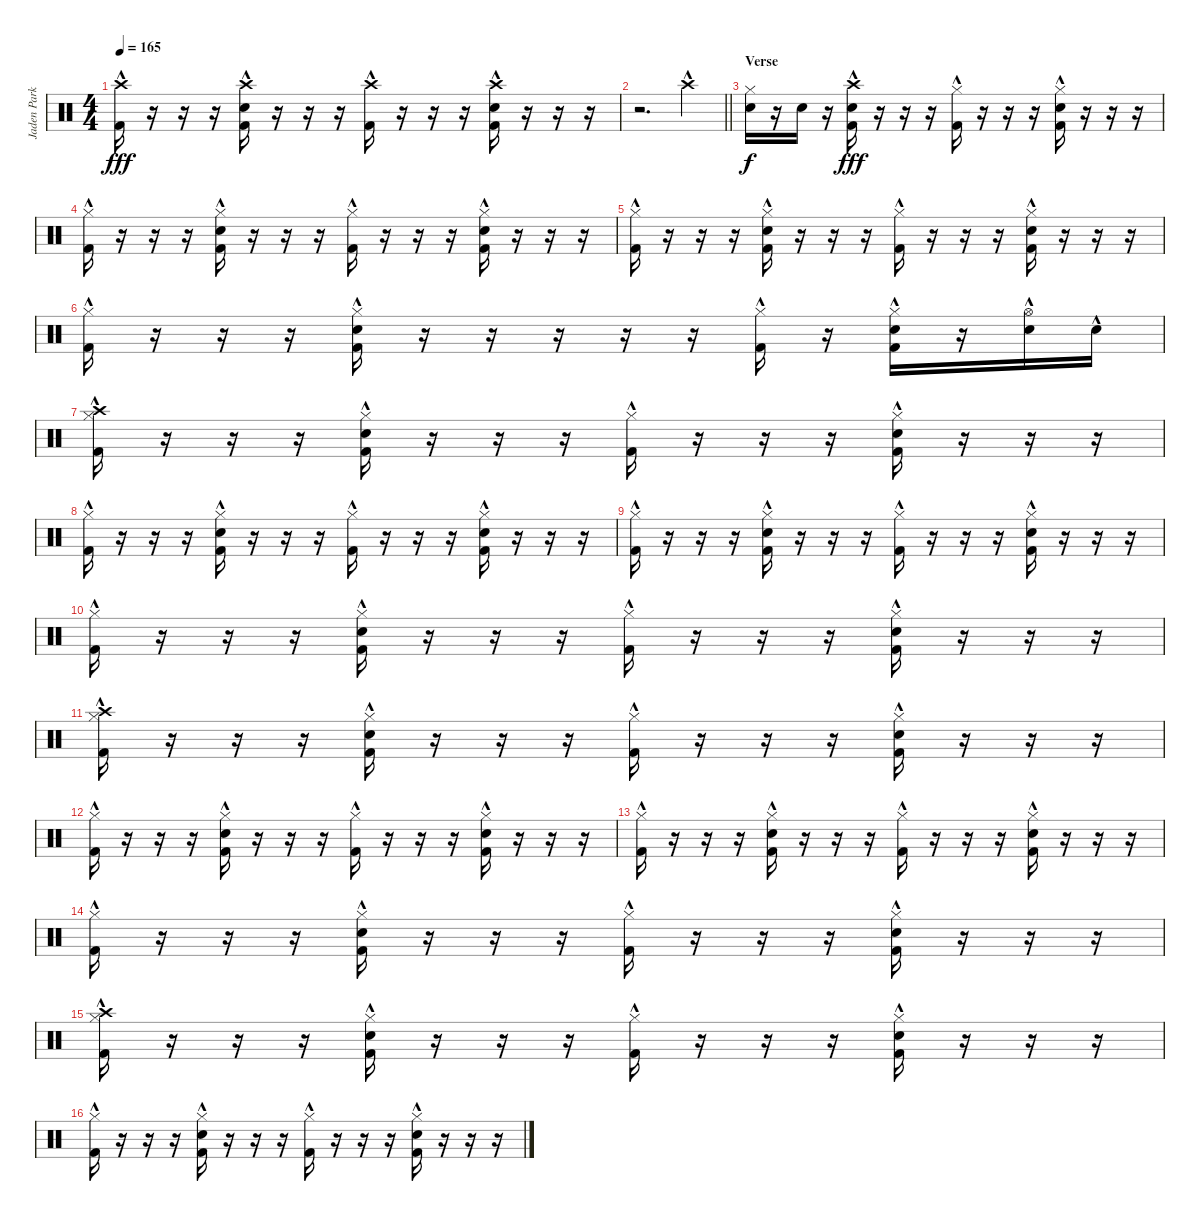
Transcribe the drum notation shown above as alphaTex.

\track ("Jaden Parkes" "Jaden Park") {instrument percussion}
\staff {score}
\articulation defaults
\ts (4 4)
\tempo 165
\clef neutral
\ks c
("Crash high (hit)" "Kick (hit) 2"{hac}).16{dy fff} r.16 r.16 r.16 ("Crash high (hit)"{hac} "Electric Snare (hit)" "Kick (hit) 2"{hac}).16 r.16 r.16 r.16 ("Crash high (hit)" "Kick (hit) 2"{hac}).16 r.16 r.16 r.16 ("Crash high (hit)"{hac} "Electric Snare (hit)" "Kick (hit) 2"{hac}).16 r.16 r.16 r.16 |
\barLineRight lightlight
r.2{d} "Crash high (hit)"{hac}.4 |
\section ("" "Verse")
("Hi-Hat (closed)" "Electric Snare (hit)").16{dy f volume 13} r.16 "Electric Snare (hit)".16 r.16 ("Crash high (hit)"{hac} "Electric Snare (hit)" "Kick (hit) 2"{hac}).16{dy fff} r.16 r.16 r.16 ("Hi-Hat (closed)" "Kick (hit) 2"{hac}).16 r.16 r.16 r.16 ("Hi-Hat (closed)"{hac} "Electric Snare (hit)" "Kick (hit) 2"{hac}).16 r.16 r.16 r.16 |
("Hi-Hat (closed)" "Kick (hit) 2"{hac}).16 r.16 r.16 r.16 ("Hi-Hat (closed)"{hac} "Electric Snare (hit)" "Kick (hit) 2"{hac}).16 r.16 r.16 r.16 ("Hi-Hat (closed)" "Kick (hit) 2"{hac}).16 r.16 r.16 r.16 ("Hi-Hat (closed)"{hac} "Electric Snare (hit)" "Kick (hit) 2"{hac}).16 r.16 r.16 r.16 |
("Hi-Hat (closed)" "Kick (hit) 2"{hac}).16 r.16 r.16 r.16 ("Hi-Hat (closed)"{hac} "Electric Snare (hit)" "Kick (hit) 2"{hac}).16 r.16 r.16 r.16 ("Hi-Hat (closed)" "Kick (hit) 2"{hac}).16 r.16 r.16 r.16 ("Hi-Hat (closed)"{hac} "Electric Snare (hit)" "Kick (hit) 2"{hac}).16 r.16 r.16 r.16 |
("Hi-Hat (closed)" "Kick (hit) 2"{hac}).16 r.16 r.16 r.16 ("Hi-Hat (closed)"{hac} "Electric Snare (hit)" "Kick (hit) 2"{hac}).16 r.16 r.16 r.16 r.16 r.16 ("Hi-Hat (closed)" "Kick (hit) 2"{hac}).16 r.16 ("Hi-Hat (closed)"{hac} "Electric Snare (hit)"{hac} "Kick (hit) 2"{hac}).16 r.16 ("Hi-Hat (open)" "Electric Snare (hit)"{hac}).16 "Electric Snare (hit)"{hac}.16 |
("Hi-Hat (closed)" "Crash high (hit)"{hac} "Kick (hit) 2"{hac}).16 r.16 r.16 r.16 ("Hi-Hat (closed)"{hac} "Electric Snare (hit)" "Kick (hit) 2"{hac}).16 r.16 r.16 r.16 ("Hi-Hat (closed)" "Kick (hit) 2"{hac}).16 r.16 r.16 r.16 ("Hi-Hat (closed)"{hac} "Electric Snare (hit)" "Kick (hit) 2"{hac}).16 r.16 r.16 r.16 |
("Hi-Hat (closed)" "Kick (hit) 2"{hac}).16 r.16 r.16 r.16 ("Hi-Hat (closed)"{hac} "Electric Snare (hit)" "Kick (hit) 2"{hac}).16 r.16 r.16 r.16 ("Hi-Hat (closed)" "Kick (hit) 2"{hac}).16 r.16 r.16 r.16 ("Hi-Hat (closed)"{hac} "Electric Snare (hit)" "Kick (hit) 2"{hac}).16 r.16 r.16 r.16 |
("Hi-Hat (closed)" "Kick (hit) 2"{hac}).16 r.16 r.16 r.16 ("Hi-Hat (closed)"{hac} "Electric Snare (hit)" "Kick (hit) 2"{hac}).16 r.16 r.16 r.16 ("Hi-Hat (closed)" "Kick (hit) 2"{hac}).16 r.16 r.16 r.16 ("Hi-Hat (closed)"{hac} "Electric Snare (hit)" "Kick (hit) 2"{hac}).16 r.16 r.16 r.16 |
("Hi-Hat (closed)" "Kick (hit) 2"{hac}).16 r.16 r.16 r.16 ("Hi-Hat (closed)"{hac} "Electric Snare (hit)" "Kick (hit) 2"{hac}).16 r.16 r.16 r.16 ("Hi-Hat (closed)" "Kick (hit) 2"{hac}).16 r.16 r.16 r.16 ("Hi-Hat (closed)"{hac} "Electric Snare (hit)" "Kick (hit) 2"{hac}).16 r.16 r.16 r.16 |
("Hi-Hat (closed)" "Crash high (hit)"{hac} "Kick (hit) 2"{hac}).16 r.16 r.16 r.16 ("Hi-Hat (closed)"{hac} "Electric Snare (hit)" "Kick (hit) 2"{hac}).16 r.16 r.16 r.16 ("Hi-Hat (closed)" "Kick (hit) 2"{hac}).16 r.16 r.16 r.16 ("Hi-Hat (closed)"{hac} "Electric Snare (hit)" "Kick (hit) 2"{hac}).16 r.16 r.16 r.16 |
("Hi-Hat (closed)" "Kick (hit) 2"{hac}).16 r.16 r.16 r.16 ("Hi-Hat (closed)"{hac} "Electric Snare (hit)" "Kick (hit) 2"{hac}).16 r.16 r.16 r.16 ("Hi-Hat (closed)" "Kick (hit) 2"{hac}).16 r.16 r.16 r.16 ("Hi-Hat (closed)"{hac} "Electric Snare (hit)" "Kick (hit) 2"{hac}).16 r.16 r.16 r.16 |
("Hi-Hat (closed)" "Kick (hit) 2"{hac}).16 r.16 r.16 r.16 ("Hi-Hat (closed)"{hac} "Electric Snare (hit)" "Kick (hit) 2"{hac}).16 r.16 r.16 r.16 ("Hi-Hat (closed)" "Kick (hit) 2"{hac}).16 r.16 r.16 r.16 ("Hi-Hat (closed)"{hac} "Electric Snare (hit)" "Kick (hit) 2"{hac}).16 r.16 r.16 r.16 |
("Hi-Hat (closed)" "Kick (hit) 2"{hac}).16 r.16 r.16 r.16 ("Hi-Hat (closed)"{hac} "Electric Snare (hit)" "Kick (hit) 2"{hac}).16 r.16 r.16 r.16 ("Hi-Hat (closed)" "Kick (hit) 2"{hac}).16 r.16 r.16 r.16 ("Hi-Hat (closed)"{hac} "Electric Snare (hit)" "Kick (hit) 2"{hac}).16 r.16 r.16 r.16 |
("Hi-Hat (closed)" "Crash high (hit)"{hac} "Kick (hit) 2"{hac}).16 r.16 r.16 r.16 ("Hi-Hat (closed)"{hac} "Electric Snare (hit)" "Kick (hit) 2"{hac}).16 r.16 r.16 r.16 ("Hi-Hat (closed)" "Kick (hit) 2"{hac}).16 r.16 r.16 r.16 ("Hi-Hat (closed)"{hac} "Electric Snare (hit)" "Kick (hit) 2"{hac}).16 r.16 r.16 r.16 |
("Hi-Hat (closed)" "Kick (hit) 2"{hac}).16 r.16 r.16 r.16 ("Hi-Hat (closed)"{hac} "Electric Snare (hit)" "Kick (hit) 2"{hac}).16 r.16 r.16 r.16 ("Hi-Hat (closed)" "Kick (hit) 2"{hac}).16 r.16 r.16 r.16 ("Hi-Hat (closed)"{hac} "Electric Snare (hit)" "Kick (hit) 2"{hac}).16 r.16 r.16 r.16
